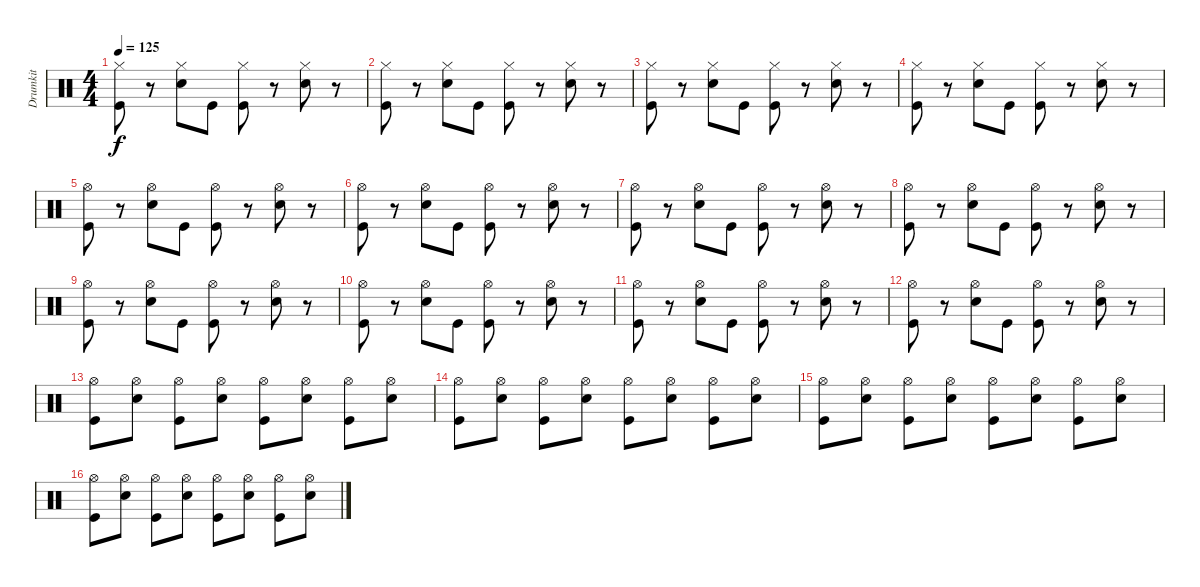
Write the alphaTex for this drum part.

\track ("Drumkit" "Drumkit") {instrument percussion}
\staff {score}
\articulation defaults
\ts (4 4)
\tempo 125
\clef neutral
\ks c
("Hi-Hat (closed)" "Kick (hit)").8{dy f} r.8 ("Hi-Hat (closed)" "Snare (hit) 2").8 "Kick (hit)".8 ("Hi-Hat (closed)" "Kick (hit)").8 r.8 ("Hi-Hat (closed)" "Snare (hit) 2").8 r.8 |
("Hi-Hat (closed)" "Kick (hit)").8 r.8 ("Hi-Hat (closed)" "Snare (hit) 2").8 "Kick (hit)".8 ("Hi-Hat (closed)" "Kick (hit)").8 r.8 ("Hi-Hat (closed)" "Snare (hit) 2").8 r.8 |
("Hi-Hat (closed)" "Kick (hit)").8 r.8 ("Hi-Hat (closed)" "Snare (hit) 2").8 "Kick (hit)".8 ("Hi-Hat (closed)" "Kick (hit)").8 r.8 ("Hi-Hat (closed)" "Snare (hit) 2").8 r.8 |
("Hi-Hat (closed)" "Kick (hit)").8 r.8 ("Hi-Hat (closed)" "Snare (hit) 2").8 "Kick (hit)".8 ("Hi-Hat (closed)" "Kick (hit)").8 r.8 ("Hi-Hat (closed)" "Snare (hit) 2").8 r.8 |
("Hi-Hat (open)" "Kick (hit)").8 r.8 ("Hi-Hat (open)" "Snare (hit) 2").8 "Kick (hit)".8 ("Hi-Hat (open)" "Kick (hit)").8 r.8 ("Hi-Hat (open)" "Snare (hit) 2").8 r.8 |
("Hi-Hat (open)" "Kick (hit)").8 r.8 ("Hi-Hat (open)" "Snare (hit) 2").8 "Kick (hit)".8 ("Hi-Hat (open)" "Kick (hit)").8 r.8 ("Hi-Hat (open)" "Snare (hit) 2").8 r.8 |
("Hi-Hat (open)" "Kick (hit)").8 r.8 ("Hi-Hat (open)" "Snare (hit) 2").8 "Kick (hit)".8 ("Hi-Hat (open)" "Kick (hit)").8 r.8 ("Hi-Hat (open)" "Snare (hit) 2").8 r.8 |
("Hi-Hat (open)" "Kick (hit)").8 r.8 ("Hi-Hat (open)" "Snare (hit) 2").8 "Kick (hit)".8 ("Hi-Hat (open)" "Kick (hit)").8 r.8 ("Hi-Hat (open)" "Snare (hit) 2").8 r.8 |
("Hi-Hat (open)" "Kick (hit)").8 r.8 ("Hi-Hat (open)" "Snare (hit) 2").8 "Kick (hit)".8 ("Hi-Hat (open)" "Kick (hit)").8 r.8 ("Hi-Hat (open)" "Snare (hit) 2").8 r.8 |
("Hi-Hat (open)" "Kick (hit)").8 r.8 ("Hi-Hat (open)" "Snare (hit) 2").8 "Kick (hit)".8 ("Hi-Hat (open)" "Kick (hit)").8 r.8 ("Hi-Hat (open)" "Snare (hit) 2").8 r.8 |
("Hi-Hat (open)" "Kick (hit)").8 r.8 ("Hi-Hat (open)" "Snare (hit) 2").8 "Kick (hit)".8 ("Hi-Hat (open)" "Kick (hit)").8 r.8 ("Hi-Hat (open)" "Snare (hit) 2").8 r.8 |
("Hi-Hat (open)" "Kick (hit)").8 r.8 ("Hi-Hat (open)" "Snare (hit) 2").8 "Kick (hit)".8 ("Hi-Hat (open)" "Kick (hit)").8 r.8 ("Hi-Hat (open)" "Snare (hit) 2").8 r.8 |
("Hi-Hat (open)" "Kick (hit)").8 ("Hi-Hat (open)" "Snare (hit) 2").8 ("Hi-Hat (open)" "Kick (hit)").8 ("Hi-Hat (open)" "Snare (hit) 2").8 ("Hi-Hat (open)" "Kick (hit)").8 ("Hi-Hat (open)" "Snare (hit) 2").8 ("Hi-Hat (open)" "Kick (hit)").8 ("Hi-Hat (open)" "Snare (hit) 2").8 |
("Hi-Hat (open)" "Kick (hit)").8 ("Hi-Hat (open)" "Snare (hit) 2").8 ("Hi-Hat (open)" "Kick (hit)").8 ("Hi-Hat (open)" "Snare (hit) 2").8 ("Hi-Hat (open)" "Kick (hit)").8 ("Hi-Hat (open)" "Snare (hit) 2").8 ("Hi-Hat (open)" "Kick (hit)").8 ("Hi-Hat (open)" "Snare (hit) 2").8 |
("Hi-Hat (open)" "Kick (hit)").8 ("Hi-Hat (open)" "Snare (hit) 2").8 ("Hi-Hat (open)" "Kick (hit)").8 ("Hi-Hat (open)" "Snare (hit) 2").8 ("Hi-Hat (open)" "Kick (hit)").8 ("Hi-Hat (open)" "Snare (hit) 2").8 ("Hi-Hat (open)" "Kick (hit)").8 ("Hi-Hat (open)" "Snare (hit) 2").8 |
("Hi-Hat (open)" "Kick (hit)").8 ("Hi-Hat (open)" "Snare (hit) 2").8 ("Hi-Hat (open)" "Kick (hit)").8 ("Hi-Hat (open)" "Snare (hit) 2").8 ("Hi-Hat (open)" "Kick (hit)").8 ("Hi-Hat (open)" "Snare (hit) 2").8 ("Hi-Hat (open)" "Kick (hit)").8 ("Hi-Hat (open)" "Snare (hit) 2").8
